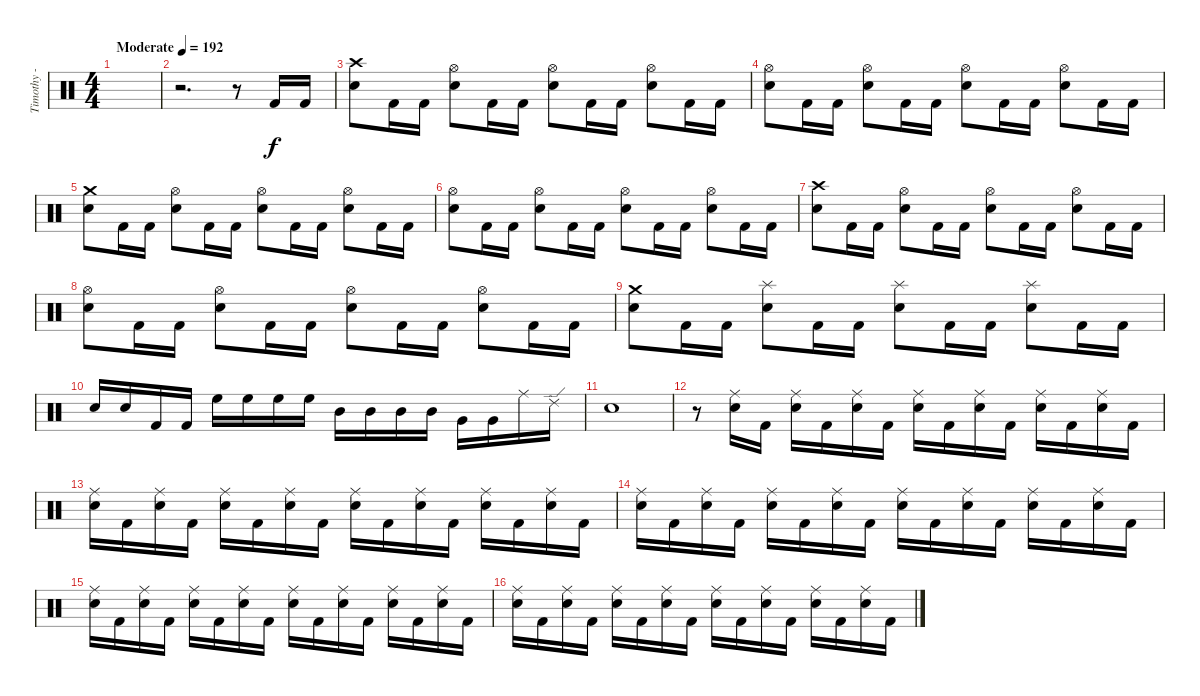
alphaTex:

\track ("Timothy - Drums" "Timothy - ") {instrument percussion}
\staff {score}
\articulation defaults
\ts (4 4)
\tempo (192 "Moderate")
\clef neutral
\ks c
|
r.2{d} r.8 "Kick (hit) 2".16 "Kick (hit) 2".16 |
("Crash high (hit)" "Electric Snare (hit)").8 "Kick (hit) 2".16 "Kick (hit) 2".16 ("Hi-Hat (open)" "Electric Snare (hit)").8 "Kick (hit) 2".16 "Kick (hit) 2".16 ("Hi-Hat (open)" "Electric Snare (hit)").8 "Kick (hit) 2".16 "Kick (hit) 2".16 ("Hi-Hat (open)" "Electric Snare (hit)").8 "Kick (hit) 2".16 "Kick (hit) 2".16 |
("Hi-Hat (open)" "Electric Snare (hit)").8 "Kick (hit) 2".16 "Kick (hit) 2".16 ("Hi-Hat (open)" "Electric Snare (hit)").8 "Kick (hit) 2".16 "Kick (hit) 2".16 ("Hi-Hat (open)" "Electric Snare (hit)").8 "Kick (hit) 2".16 "Kick (hit) 2".16 ("Hi-Hat (open)" "Electric Snare (hit)").8 "Kick (hit) 2".16 "Kick (hit) 2".16 |
("Crash medium (hit)" "Electric Snare (hit)").8 "Kick (hit) 2".16 "Kick (hit) 2".16 ("Hi-Hat (open)" "Electric Snare (hit)").8 "Kick (hit) 2".16 "Kick (hit) 2".16 ("Hi-Hat (open)" "Electric Snare (hit)").8 "Kick (hit) 2".16 "Kick (hit) 2".16 ("Hi-Hat (open)" "Electric Snare (hit)").8 "Kick (hit) 2".16 "Kick (hit) 2".16 |
("Hi-Hat (open)" "Electric Snare (hit)").8 "Kick (hit) 2".16 "Kick (hit) 2".16 ("Hi-Hat (open)" "Electric Snare (hit)").8 "Kick (hit) 2".16 "Kick (hit) 2".16 ("Hi-Hat (open)" "Electric Snare (hit)").8 "Kick (hit) 2".16 "Kick (hit) 2".16 ("Hi-Hat (open)" "Electric Snare (hit)").8 "Kick (hit) 2".16 "Kick (hit) 2".16 |
("Crash high (hit)" "Electric Snare (hit)").8 "Kick (hit) 2".16 "Kick (hit) 2".16 ("Hi-Hat (open)" "Electric Snare (hit)").8 "Kick (hit) 2".16 "Kick (hit) 2".16 ("Hi-Hat (open)" "Electric Snare (hit)").8 "Kick (hit) 2".16 "Kick (hit) 2".16 ("Hi-Hat (open)" "Electric Snare (hit)").8 "Kick (hit) 2".16 "Kick (hit) 2".16 |
("Hi-Hat (open)" "Electric Snare (hit)").8 "Kick (hit) 2".16 "Kick (hit) 2".16 ("Hi-Hat (open)" "Electric Snare (hit)").8 "Kick (hit) 2".16 "Kick (hit) 2".16 ("Hi-Hat (open)" "Electric Snare (hit)").8 "Kick (hit) 2".16 "Kick (hit) 2".16 ("Hi-Hat (open)" "Electric Snare (hit)").8 "Kick (hit) 2".16 "Kick (hit) 2".16 |
("Crash medium (hit)" "Electric Snare (hit)").8 "Kick (hit) 2".16 "Kick (hit) 2".16 ("Splash (hit)" "Electric Snare (hit)").8 "Kick (hit) 2".16 "Kick (hit) 2".16 ("Splash (hit)" "Electric Snare (hit)").8 "Kick (hit) 2".16 "Kick (hit) 2".16 ("Splash (hit)" "Electric Snare (hit)").8 "Kick (hit) 2".16 "Kick (hit) 2".16 |
"Electric Snare (hit)".16 "Electric Snare (hit)".16 "Kick (hit) 2".16 "Kick (hit) 2".16 "High Floor Tom (hit)".16 "High Floor Tom (hit)".16 "High Floor Tom (hit)".16 "High Floor Tom (hit)".16 "Mid Tom (hit)".16 "Mid Tom (hit)".16 "Mid Tom (hit)".16 "Mid Tom (hit)".16 "Very Low Tom (hit)".16 "Very Low Tom (hit)".16 "Ride (middle)".16 "Ride (edge) 2".16 |
"Electric Snare (hit)".1 |
r.8 ("Ride (middle)" "Electric Snare (hit)").16 "Kick (hit) 2".16 ("Ride (middle)" "Electric Snare (hit)").16 "Kick (hit) 2".16 ("Ride (middle)" "Electric Snare (hit)").16 "Kick (hit) 2".16 ("Ride (middle)" "Electric Snare (hit)").16 "Kick (hit) 2".16 ("Ride (middle)" "Electric Snare (hit)").16 "Kick (hit) 2".16 ("Ride (middle)" "Electric Snare (hit)").16 "Kick (hit) 2".16 ("Ride (middle)" "Electric Snare (hit)").16 "Kick (hit) 2".16 |
("Ride (middle)" "Electric Snare (hit)").16 "Kick (hit) 2".16 ("Ride (middle)" "Electric Snare (hit)").16 "Kick (hit) 2".16 ("Ride (middle)" "Electric Snare (hit)").16 "Kick (hit) 2".16 ("Ride (middle)" "Electric Snare (hit)").16 "Kick (hit) 2".16 ("Ride (middle)" "Electric Snare (hit)").16 "Kick (hit) 2".16 ("Ride (middle)" "Electric Snare (hit)").16 "Kick (hit) 2".16 ("Ride (middle)" "Electric Snare (hit)").16 "Kick (hit) 2".16 ("Ride (middle)" "Electric Snare (hit)").16 "Kick (hit) 2".16 |
("Ride (middle)" "Electric Snare (hit)").16 "Kick (hit) 2".16 ("Ride (middle)" "Electric Snare (hit)").16 "Kick (hit) 2".16 ("Ride (middle)" "Electric Snare (hit)").16 "Kick (hit) 2".16 ("Ride (middle)" "Electric Snare (hit)").16 "Kick (hit) 2".16 ("Ride (middle)" "Electric Snare (hit)").16 "Kick (hit) 2".16 ("Ride (middle)" "Electric Snare (hit)").16 "Kick (hit) 2".16 ("Ride (middle)" "Electric Snare (hit)").16 "Kick (hit) 2".16 ("Ride (middle)" "Electric Snare (hit)").16 "Kick (hit) 2".16 |
("Ride (middle)" "Electric Snare (hit)").16 "Kick (hit) 2".16 ("Ride (middle)" "Electric Snare (hit)").16 "Kick (hit) 2".16 ("Ride (middle)" "Electric Snare (hit)").16 "Kick (hit) 2".16 ("Ride (middle)" "Electric Snare (hit)").16 "Kick (hit) 2".16 ("Ride (middle)" "Electric Snare (hit)").16 "Kick (hit) 2".16 ("Ride (middle)" "Electric Snare (hit)").16 "Kick (hit) 2".16 ("Ride (middle)" "Electric Snare (hit)").16 "Kick (hit) 2".16 ("Ride (middle)" "Electric Snare (hit)").16 "Kick (hit) 2".16 |
("Ride (middle)" "Electric Snare (hit)").16 "Kick (hit) 2".16 ("Ride (middle)" "Electric Snare (hit)").16 "Kick (hit) 2".16 ("Ride (middle)" "Electric Snare (hit)").16 "Kick (hit) 2".16 ("Ride (middle)" "Electric Snare (hit)").16 "Kick (hit) 2".16 ("Ride (middle)" "Electric Snare (hit)").16 "Kick (hit) 2".16 ("Ride (middle)" "Electric Snare (hit)").16 "Kick (hit) 2".16 ("Ride (middle)" "Electric Snare (hit)").16 "Kick (hit) 2".16 ("Ride (middle)" "Electric Snare (hit)").16 "Kick (hit) 2".16
